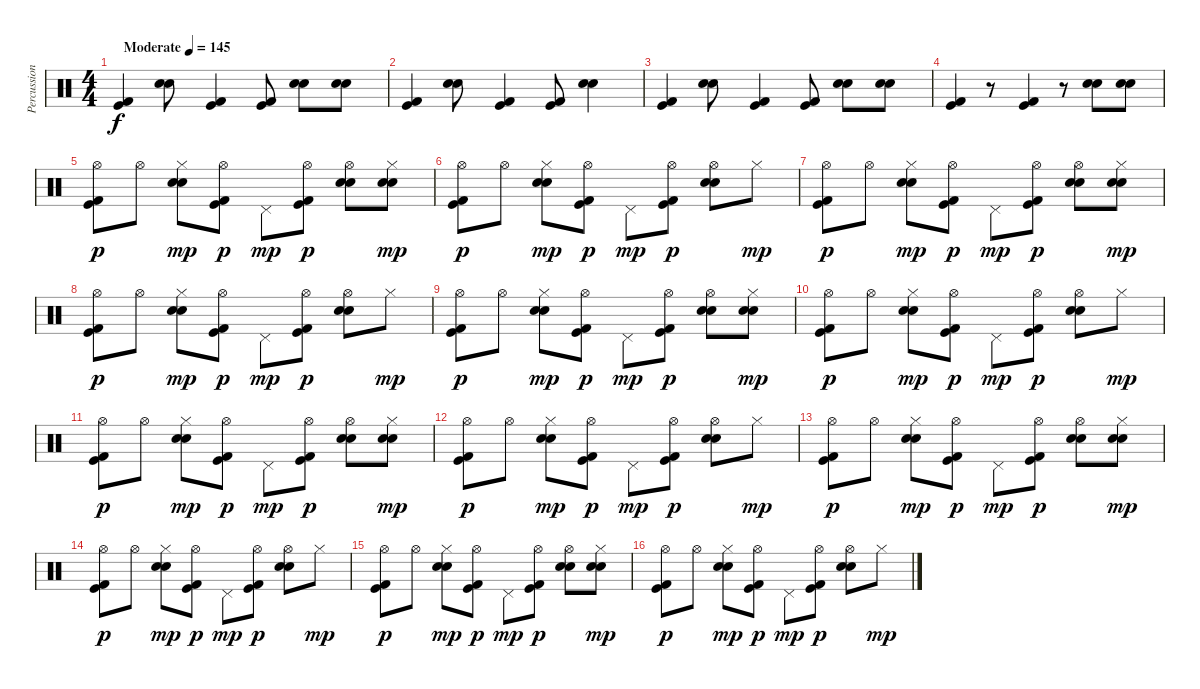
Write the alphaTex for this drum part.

\track ("Percussions" "Percussion") {instrument percussion}
\staff {score}
\articulation defaults
\ts (4 4)
\tempo (145 "Moderate")
\clef neutral
\ks c
("Kick (hit) 2" "Kick (hit)").4{dy f} ("Snare (hit) 2" "Electric Snare (hit)").8 ("Kick (hit) 2" "Kick (hit)").4 ("Kick (hit) 2" "Kick (hit)").8 ("Snare (hit) 2" "Electric Snare (hit)").8 ("Snare (hit) 2" "Electric Snare (hit)").8 |
("Kick (hit) 2" "Kick (hit)").4 ("Snare (hit) 2" "Electric Snare (hit)").8 ("Kick (hit) 2" "Kick (hit)").4 ("Kick (hit) 2" "Kick (hit)").8 ("Snare (hit) 2" "Electric Snare (hit)").4 |
("Kick (hit) 2" "Kick (hit)").4 ("Snare (hit) 2" "Electric Snare (hit)").8 ("Kick (hit) 2" "Kick (hit)").4 ("Kick (hit) 2" "Kick (hit)").8 ("Snare (hit) 2" "Electric Snare (hit)").8 ("Snare (hit) 2" "Electric Snare (hit)").8 |
("Kick (hit) 2" "Kick (hit)").4 r.8 ("Kick (hit) 2" "Kick (hit)").4 r.8 ("Snare (hit) 2" "Electric Snare (hit)").8 ("Snare (hit) 2" "Electric Snare (hit)").8 |
("Kick (hit) 2" "Kick (hit)" "Hi-Hat (open)").8{dy p} "Hi-Hat (open)".8 ("Snare (hit) 2" "Electric Snare (hit)" "Hi-Hat (closed)").8{dy mp} ("Kick (hit) 2" "Kick (hit)" "Hi-Hat (open)").8{dy p} "Pedal Hi-Hat (hit)".8{dy mp} ("Kick (hit) 2" "Kick (hit)" "Hi-Hat (open)").8{dy p} ("Snare (hit) 2" "Electric Snare (hit)" "Hi-Hat (open)").8 ("Snare (hit) 2" "Electric Snare (hit)" "Hi-Hat (closed)").8{dy mp} |
("Kick (hit) 2" "Kick (hit)" "Hi-Hat (open)").8{dy p} "Hi-Hat (open)".8 ("Snare (hit) 2" "Electric Snare (hit)" "Hi-Hat (closed)").8{dy mp} ("Kick (hit) 2" "Kick (hit)" "Hi-Hat (open)").8{dy p} "Pedal Hi-Hat (hit)".8{dy mp} ("Kick (hit) 2" "Kick (hit)" "Hi-Hat (open)").8{dy p} ("Snare (hit) 2" "Electric Snare (hit)" "Hi-Hat (open)").8 "Hi-Hat (closed)".8{dy mp} |
("Kick (hit) 2" "Kick (hit)" "Hi-Hat (open)").8{dy p} "Hi-Hat (open)".8 ("Snare (hit) 2" "Electric Snare (hit)" "Hi-Hat (closed)").8{dy mp} ("Kick (hit) 2" "Kick (hit)" "Hi-Hat (open)").8{dy p} "Pedal Hi-Hat (hit)".8{dy mp} ("Kick (hit) 2" "Kick (hit)" "Hi-Hat (open)").8{dy p} ("Snare (hit) 2" "Electric Snare (hit)" "Hi-Hat (open)").8 ("Snare (hit) 2" "Electric Snare (hit)" "Hi-Hat (closed)").8{dy mp} |
("Kick (hit) 2" "Kick (hit)" "Hi-Hat (open)").8{dy p} "Hi-Hat (open)".8 ("Snare (hit) 2" "Electric Snare (hit)" "Hi-Hat (closed)").8{dy mp} ("Kick (hit) 2" "Kick (hit)" "Hi-Hat (open)").8{dy p} "Pedal Hi-Hat (hit)".8{dy mp} ("Kick (hit) 2" "Kick (hit)" "Hi-Hat (open)").8{dy p} ("Snare (hit) 2" "Electric Snare (hit)" "Hi-Hat (open)").8 "Hi-Hat (closed)".8{dy mp} |
("Kick (hit) 2" "Kick (hit)" "Hi-Hat (open)").8{dy p} "Hi-Hat (open)".8 ("Snare (hit) 2" "Electric Snare (hit)" "Hi-Hat (closed)").8{dy mp} ("Kick (hit) 2" "Kick (hit)" "Hi-Hat (open)").8{dy p} "Pedal Hi-Hat (hit)".8{dy mp} ("Kick (hit) 2" "Kick (hit)" "Hi-Hat (open)").8{dy p} ("Snare (hit) 2" "Electric Snare (hit)" "Hi-Hat (open)").8 ("Snare (hit) 2" "Electric Snare (hit)" "Hi-Hat (closed)").8{dy mp} |
("Kick (hit) 2" "Kick (hit)" "Hi-Hat (open)").8{dy p} "Hi-Hat (open)".8 ("Snare (hit) 2" "Electric Snare (hit)" "Hi-Hat (closed)").8{dy mp} ("Kick (hit) 2" "Kick (hit)" "Hi-Hat (open)").8{dy p} "Pedal Hi-Hat (hit)".8{dy mp} ("Kick (hit) 2" "Kick (hit)" "Hi-Hat (open)").8{dy p} ("Snare (hit) 2" "Electric Snare (hit)" "Hi-Hat (open)").8 "Hi-Hat (closed)".8{dy mp} |
("Kick (hit) 2" "Kick (hit)" "Hi-Hat (open)").8{dy p} "Hi-Hat (open)".8 ("Snare (hit) 2" "Electric Snare (hit)" "Hi-Hat (closed)").8{dy mp} ("Kick (hit) 2" "Kick (hit)" "Hi-Hat (open)").8{dy p} "Pedal Hi-Hat (hit)".8{dy mp} ("Kick (hit) 2" "Kick (hit)" "Hi-Hat (open)").8{dy p} ("Snare (hit) 2" "Electric Snare (hit)" "Hi-Hat (open)").8 ("Snare (hit) 2" "Electric Snare (hit)" "Hi-Hat (closed)").8{dy mp} |
("Kick (hit) 2" "Kick (hit)" "Hi-Hat (open)").8{dy p} "Hi-Hat (open)".8 ("Snare (hit) 2" "Electric Snare (hit)" "Hi-Hat (closed)").8{dy mp} ("Kick (hit) 2" "Kick (hit)" "Hi-Hat (open)").8{dy p} "Pedal Hi-Hat (hit)".8{dy mp} ("Kick (hit) 2" "Kick (hit)" "Hi-Hat (open)").8{dy p} ("Snare (hit) 2" "Electric Snare (hit)" "Hi-Hat (open)").8 "Hi-Hat (closed)".8{dy mp} |
("Kick (hit) 2" "Kick (hit)" "Hi-Hat (open)").8{dy p} "Hi-Hat (open)".8 ("Snare (hit) 2" "Electric Snare (hit)" "Hi-Hat (closed)").8{dy mp} ("Kick (hit) 2" "Kick (hit)" "Hi-Hat (open)").8{dy p} "Pedal Hi-Hat (hit)".8{dy mp} ("Kick (hit) 2" "Kick (hit)" "Hi-Hat (open)").8{dy p} ("Snare (hit) 2" "Electric Snare (hit)" "Hi-Hat (open)").8 ("Snare (hit) 2" "Electric Snare (hit)" "Hi-Hat (closed)").8{dy mp} |
("Kick (hit) 2" "Kick (hit)" "Hi-Hat (open)").8{dy p} "Hi-Hat (open)".8 ("Snare (hit) 2" "Electric Snare (hit)" "Hi-Hat (closed)").8{dy mp} ("Kick (hit) 2" "Kick (hit)" "Hi-Hat (open)").8{dy p} "Pedal Hi-Hat (hit)".8{dy mp} ("Kick (hit) 2" "Kick (hit)" "Hi-Hat (open)").8{dy p} ("Snare (hit) 2" "Electric Snare (hit)" "Hi-Hat (open)").8 "Hi-Hat (closed)".8{dy mp} |
("Kick (hit) 2" "Kick (hit)" "Hi-Hat (open)").8{dy p} "Hi-Hat (open)".8 ("Snare (hit) 2" "Electric Snare (hit)" "Hi-Hat (closed)").8{dy mp} ("Kick (hit) 2" "Kick (hit)" "Hi-Hat (open)").8{dy p} "Pedal Hi-Hat (hit)".8{dy mp} ("Kick (hit) 2" "Kick (hit)" "Hi-Hat (open)").8{dy p} ("Snare (hit) 2" "Electric Snare (hit)" "Hi-Hat (open)").8 ("Snare (hit) 2" "Electric Snare (hit)" "Hi-Hat (closed)").8{dy mp} |
("Kick (hit) 2" "Kick (hit)" "Hi-Hat (open)").8{dy p} "Hi-Hat (open)".8 ("Snare (hit) 2" "Electric Snare (hit)" "Hi-Hat (closed)").8{dy mp} ("Kick (hit) 2" "Kick (hit)" "Hi-Hat (open)").8{dy p} "Pedal Hi-Hat (hit)".8{dy mp} ("Kick (hit) 2" "Kick (hit)" "Hi-Hat (open)").8{dy p} ("Snare (hit) 2" "Electric Snare (hit)" "Hi-Hat (open)").8 "Hi-Hat (closed)".8{dy mp}
